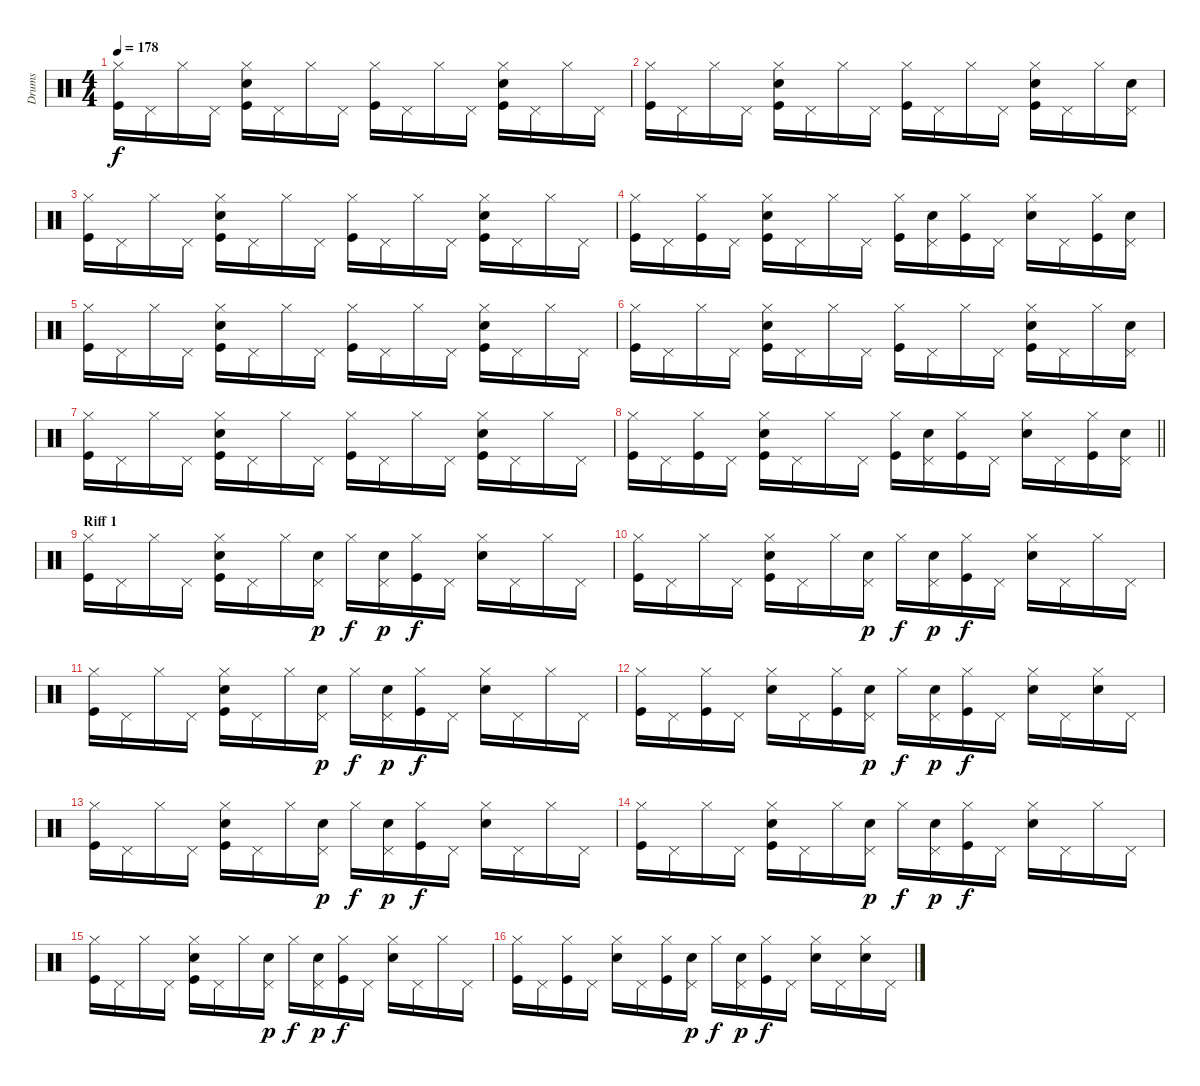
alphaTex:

\track ("Drums" "Drums") {instrument percussion}
\staff {score}
\articulation defaults
\ts (4 4)
\tempo 178
\clef neutral
\ks c
("Kick (hit)" "Hi-Hat (closed)").16{dy f} "Pedal Hi-Hat (hit)".16 "Hi-Hat (closed)".16 "Pedal Hi-Hat (hit)".16 ("Kick (hit)" "Electric Snare (hit)" "Hi-Hat (closed)").16 "Pedal Hi-Hat (hit)".16 "Hi-Hat (closed)".16 "Pedal Hi-Hat (hit)".16 ("Kick (hit)" "Hi-Hat (closed)").16 "Pedal Hi-Hat (hit)".16 "Hi-Hat (closed)".16 "Pedal Hi-Hat (hit)".16 ("Kick (hit)" "Electric Snare (hit)" "Hi-Hat (closed)").16 "Pedal Hi-Hat (hit)".16 "Hi-Hat (closed)".16 "Pedal Hi-Hat (hit)".16 |
("Kick (hit)" "Hi-Hat (closed)").16 "Pedal Hi-Hat (hit)".16 "Hi-Hat (closed)".16 "Pedal Hi-Hat (hit)".16 ("Kick (hit)" "Electric Snare (hit)" "Hi-Hat (closed)").16 "Pedal Hi-Hat (hit)".16 "Hi-Hat (closed)".16 "Pedal Hi-Hat (hit)".16 ("Kick (hit)" "Hi-Hat (closed)").16 "Pedal Hi-Hat (hit)".16 "Hi-Hat (closed)".16 "Pedal Hi-Hat (hit)".16 ("Kick (hit)" "Electric Snare (hit)" "Hi-Hat (closed)").16 "Pedal Hi-Hat (hit)".16 "Hi-Hat (closed)".16 ("Electric Snare (hit)" "Pedal Hi-Hat (hit)").16 |
("Kick (hit)" "Hi-Hat (closed)").16 "Pedal Hi-Hat (hit)".16 "Hi-Hat (closed)".16 "Pedal Hi-Hat (hit)".16 ("Kick (hit)" "Electric Snare (hit)" "Hi-Hat (closed)").16 "Pedal Hi-Hat (hit)".16 "Hi-Hat (closed)".16 "Pedal Hi-Hat (hit)".16 ("Kick (hit)" "Hi-Hat (closed)").16 "Pedal Hi-Hat (hit)".16 "Hi-Hat (closed)".16 "Pedal Hi-Hat (hit)".16 ("Kick (hit)" "Electric Snare (hit)" "Hi-Hat (closed)").16 "Pedal Hi-Hat (hit)".16 "Hi-Hat (closed)".16 "Pedal Hi-Hat (hit)".16 |
("Kick (hit)" "Hi-Hat (closed)").16 "Pedal Hi-Hat (hit)".16 ("Kick (hit)" "Hi-Hat (closed)").16 "Pedal Hi-Hat (hit)".16 ("Kick (hit)" "Electric Snare (hit)" "Hi-Hat (closed)").16 "Pedal Hi-Hat (hit)".16 "Hi-Hat (closed)".16 "Pedal Hi-Hat (hit)".16 ("Kick (hit)" "Hi-Hat (closed)").16 ("Electric Snare (hit)" "Pedal Hi-Hat (hit)").16 ("Kick (hit)" "Hi-Hat (closed)").16 "Pedal Hi-Hat (hit)".16 ("Electric Snare (hit)" "Hi-Hat (closed)").16 "Pedal Hi-Hat (hit)".16 ("Kick (hit)" "Hi-Hat (closed)").16 ("Electric Snare (hit)" "Pedal Hi-Hat (hit)").16 |
("Kick (hit)" "Hi-Hat (closed)").16 "Pedal Hi-Hat (hit)".16 "Hi-Hat (closed)".16 "Pedal Hi-Hat (hit)".16 ("Kick (hit)" "Electric Snare (hit)" "Hi-Hat (closed)").16 "Pedal Hi-Hat (hit)".16 "Hi-Hat (closed)".16 "Pedal Hi-Hat (hit)".16 ("Kick (hit)" "Hi-Hat (closed)").16 "Pedal Hi-Hat (hit)".16 "Hi-Hat (closed)".16 "Pedal Hi-Hat (hit)".16 ("Kick (hit)" "Electric Snare (hit)" "Hi-Hat (closed)").16 "Pedal Hi-Hat (hit)".16 "Hi-Hat (closed)".16 "Pedal Hi-Hat (hit)".16 |
("Kick (hit)" "Hi-Hat (closed)").16 "Pedal Hi-Hat (hit)".16 "Hi-Hat (closed)".16 "Pedal Hi-Hat (hit)".16 ("Kick (hit)" "Electric Snare (hit)" "Hi-Hat (closed)").16 "Pedal Hi-Hat (hit)".16 "Hi-Hat (closed)".16 "Pedal Hi-Hat (hit)".16 ("Kick (hit)" "Hi-Hat (closed)").16 "Pedal Hi-Hat (hit)".16 "Hi-Hat (closed)".16 "Pedal Hi-Hat (hit)".16 ("Kick (hit)" "Electric Snare (hit)" "Hi-Hat (closed)").16 "Pedal Hi-Hat (hit)".16 "Hi-Hat (closed)".16 ("Electric Snare (hit)" "Pedal Hi-Hat (hit)").16 |
("Kick (hit)" "Hi-Hat (closed)").16 "Pedal Hi-Hat (hit)".16 "Hi-Hat (closed)".16 "Pedal Hi-Hat (hit)".16 ("Kick (hit)" "Electric Snare (hit)" "Hi-Hat (closed)").16 "Pedal Hi-Hat (hit)".16 "Hi-Hat (closed)".16 "Pedal Hi-Hat (hit)".16 ("Kick (hit)" "Hi-Hat (closed)").16 "Pedal Hi-Hat (hit)".16 "Hi-Hat (closed)".16 "Pedal Hi-Hat (hit)".16 ("Kick (hit)" "Electric Snare (hit)" "Hi-Hat (closed)").16 "Pedal Hi-Hat (hit)".16 "Hi-Hat (closed)".16 "Pedal Hi-Hat (hit)".16 |
\barLineRight lightlight
("Kick (hit)" "Hi-Hat (closed)").16 "Pedal Hi-Hat (hit)".16 ("Kick (hit)" "Hi-Hat (closed)").16 "Pedal Hi-Hat (hit)".16 ("Kick (hit)" "Electric Snare (hit)" "Hi-Hat (closed)").16 "Pedal Hi-Hat (hit)".16 "Hi-Hat (closed)".16 "Pedal Hi-Hat (hit)".16 ("Kick (hit)" "Hi-Hat (closed)").16 ("Electric Snare (hit)" "Pedal Hi-Hat (hit)").16 ("Kick (hit)" "Hi-Hat (closed)").16 "Pedal Hi-Hat (hit)".16 ("Electric Snare (hit)" "Hi-Hat (closed)").16 "Pedal Hi-Hat (hit)".16 ("Kick (hit)" "Hi-Hat (closed)").16 ("Electric Snare (hit)" "Pedal Hi-Hat (hit)").16 |
\section ("" "Riff 1")
("Kick (hit)" "Hi-Hat (closed)").16 "Pedal Hi-Hat (hit)".16 "Hi-Hat (closed)".16 "Pedal Hi-Hat (hit)".16 ("Kick (hit)" "Electric Snare (hit)" "Hi-Hat (closed)").16 "Pedal Hi-Hat (hit)".16 "Hi-Hat (closed)".16 ("Electric Snare (hit)" "Pedal Hi-Hat (hit)").16{dy p} "Hi-Hat (closed)".16{dy f} ("Electric Snare (hit)" "Pedal Hi-Hat (hit)").16{dy p} ("Kick (hit)" "Hi-Hat (closed)").16{dy f} "Pedal Hi-Hat (hit)".16 ("Electric Snare (hit)" "Hi-Hat (closed)").16 "Pedal Hi-Hat (hit)".16 "Hi-Hat (closed)".16 "Pedal Hi-Hat (hit)".16 |
("Kick (hit)" "Hi-Hat (closed)").16 "Pedal Hi-Hat (hit)".16 "Hi-Hat (closed)".16 "Pedal Hi-Hat (hit)".16 ("Kick (hit)" "Electric Snare (hit)" "Hi-Hat (closed)").16 "Pedal Hi-Hat (hit)".16 "Hi-Hat (closed)".16 ("Electric Snare (hit)" "Pedal Hi-Hat (hit)").16{dy p} "Hi-Hat (closed)".16{dy f} ("Electric Snare (hit)" "Pedal Hi-Hat (hit)").16{dy p} ("Kick (hit)" "Hi-Hat (closed)").16{dy f} "Pedal Hi-Hat (hit)".16 ("Electric Snare (hit)" "Hi-Hat (closed)").16 "Pedal Hi-Hat (hit)".16 "Hi-Hat (closed)".16 "Pedal Hi-Hat (hit)".16 |
("Kick (hit)" "Hi-Hat (closed)").16 "Pedal Hi-Hat (hit)".16 "Hi-Hat (closed)".16 "Pedal Hi-Hat (hit)".16 ("Kick (hit)" "Electric Snare (hit)" "Hi-Hat (closed)").16 "Pedal Hi-Hat (hit)".16 "Hi-Hat (closed)".16 ("Electric Snare (hit)" "Pedal Hi-Hat (hit)").16{dy p} "Hi-Hat (closed)".16{dy f} ("Electric Snare (hit)" "Pedal Hi-Hat (hit)").16{dy p} ("Kick (hit)" "Hi-Hat (closed)").16{dy f} "Pedal Hi-Hat (hit)".16 ("Electric Snare (hit)" "Hi-Hat (closed)").16 "Pedal Hi-Hat (hit)".16 "Hi-Hat (closed)".16 "Pedal Hi-Hat (hit)".16 |
("Kick (hit)" "Hi-Hat (closed)").16 "Pedal Hi-Hat (hit)".16 ("Kick (hit)" "Hi-Hat (closed)").16 "Pedal Hi-Hat (hit)".16 ("Electric Snare (hit)" "Hi-Hat (closed)").16 "Pedal Hi-Hat (hit)".16 ("Kick (hit)" "Hi-Hat (closed)").16 ("Electric Snare (hit)" "Pedal Hi-Hat (hit)").16{dy p} "Hi-Hat (closed)".16{dy f} ("Electric Snare (hit)" "Pedal Hi-Hat (hit)").16{dy p} ("Kick (hit)" "Hi-Hat (closed)").16{dy f} "Pedal Hi-Hat (hit)".16 ("Electric Snare (hit)" "Hi-Hat (closed)").16 "Pedal Hi-Hat (hit)".16 ("Electric Snare (hit)" "Hi-Hat (closed)").16 "Pedal Hi-Hat (hit)".16 |
("Kick (hit)" "Hi-Hat (closed)").16 "Pedal Hi-Hat (hit)".16 "Hi-Hat (closed)".16 "Pedal Hi-Hat (hit)".16 ("Kick (hit)" "Electric Snare (hit)" "Hi-Hat (closed)").16 "Pedal Hi-Hat (hit)".16 "Hi-Hat (closed)".16 ("Electric Snare (hit)" "Pedal Hi-Hat (hit)").16{dy p} "Hi-Hat (closed)".16{dy f} ("Electric Snare (hit)" "Pedal Hi-Hat (hit)").16{dy p} ("Kick (hit)" "Hi-Hat (closed)").16{dy f} "Pedal Hi-Hat (hit)".16 ("Electric Snare (hit)" "Hi-Hat (closed)").16 "Pedal Hi-Hat (hit)".16 "Hi-Hat (closed)".16 "Pedal Hi-Hat (hit)".16 |
("Kick (hit)" "Hi-Hat (closed)").16 "Pedal Hi-Hat (hit)".16 "Hi-Hat (closed)".16 "Pedal Hi-Hat (hit)".16 ("Kick (hit)" "Electric Snare (hit)" "Hi-Hat (closed)").16 "Pedal Hi-Hat (hit)".16 "Hi-Hat (closed)".16 ("Electric Snare (hit)" "Pedal Hi-Hat (hit)").16{dy p} "Hi-Hat (closed)".16{dy f} ("Electric Snare (hit)" "Pedal Hi-Hat (hit)").16{dy p} ("Kick (hit)" "Hi-Hat (closed)").16{dy f} "Pedal Hi-Hat (hit)".16 ("Electric Snare (hit)" "Hi-Hat (closed)").16 "Pedal Hi-Hat (hit)".16 "Hi-Hat (closed)".16 "Pedal Hi-Hat (hit)".16 |
("Kick (hit)" "Hi-Hat (closed)").16 "Pedal Hi-Hat (hit)".16 "Hi-Hat (closed)".16 "Pedal Hi-Hat (hit)".16 ("Kick (hit)" "Electric Snare (hit)" "Hi-Hat (closed)").16 "Pedal Hi-Hat (hit)".16 "Hi-Hat (closed)".16 ("Electric Snare (hit)" "Pedal Hi-Hat (hit)").16{dy p} "Hi-Hat (closed)".16{dy f} ("Electric Snare (hit)" "Pedal Hi-Hat (hit)").16{dy p} ("Kick (hit)" "Hi-Hat (closed)").16{dy f} "Pedal Hi-Hat (hit)".16 ("Electric Snare (hit)" "Hi-Hat (closed)").16 "Pedal Hi-Hat (hit)".16 "Hi-Hat (closed)".16 "Pedal Hi-Hat (hit)".16 |
("Kick (hit)" "Hi-Hat (closed)").16 "Pedal Hi-Hat (hit)".16 ("Kick (hit)" "Hi-Hat (closed)").16 "Pedal Hi-Hat (hit)".16 ("Electric Snare (hit)" "Hi-Hat (closed)").16 "Pedal Hi-Hat (hit)".16 ("Kick (hit)" "Hi-Hat (closed)").16 ("Electric Snare (hit)" "Pedal Hi-Hat (hit)").16{dy p} "Hi-Hat (closed)".16{dy f} ("Electric Snare (hit)" "Pedal Hi-Hat (hit)").16{dy p} ("Kick (hit)" "Hi-Hat (closed)").16{dy f} "Pedal Hi-Hat (hit)".16 ("Electric Snare (hit)" "Hi-Hat (closed)").16 "Pedal Hi-Hat (hit)".16 ("Electric Snare (hit)" "Hi-Hat (closed)").16 "Pedal Hi-Hat (hit)".16
